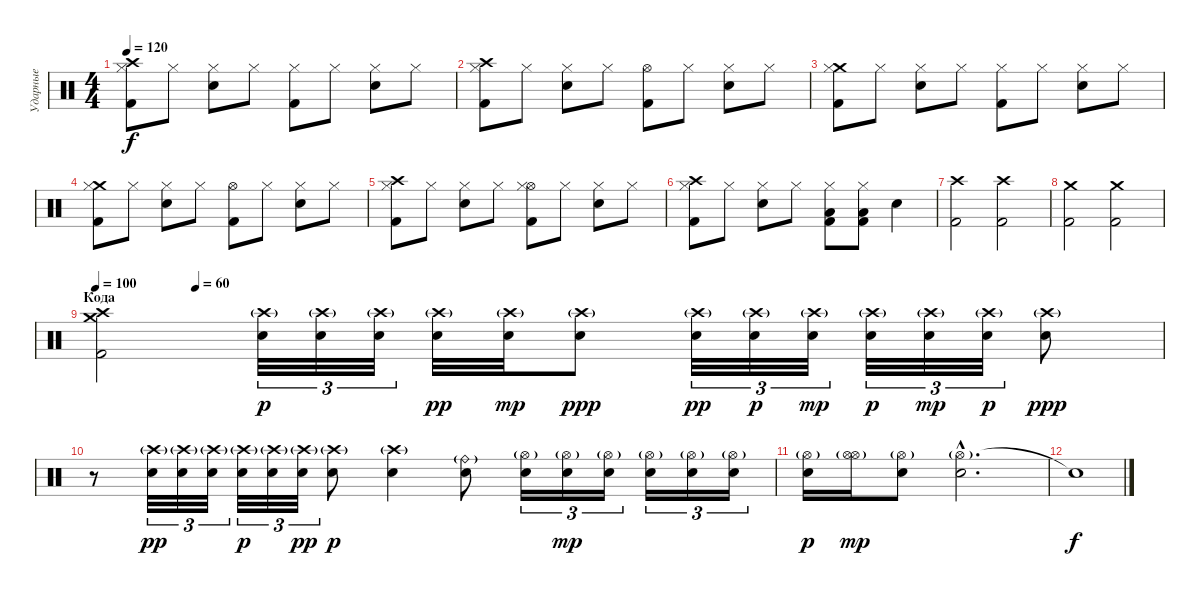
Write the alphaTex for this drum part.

\track ("Ударные" "Ударные") {instrument percussion}
\staff {score}
\articulation defaults
\ts (4 4)
\tempo 120
\clef neutral
\ks c
("Crash high (hit)" "Hi-Hat (closed)" "Kick (hit) 2").8{dy f} "Hi-Hat (closed)".8 ("Hi-Hat (closed)" "Snare (hit) 2").8 "Hi-Hat (closed)".8 ("Hi-Hat (closed)" "Kick (hit) 2").8 "Hi-Hat (closed)".8 ("Hi-Hat (closed)" "Snare (hit) 2").8 "Hi-Hat (closed)".8 |
("Crash high (hit)" "Hi-Hat (closed)" "Kick (hit) 2").8 "Hi-Hat (closed)".8 ("Hi-Hat (closed)" "Snare (hit) 2").8 "Hi-Hat (closed)".8 ("Hi-Hat (open)" "Kick (hit) 2").8 "Hi-Hat (closed)".8 ("Hi-Hat (closed)" "Snare (hit) 2").8 "Hi-Hat (closed)".8 |
("Crash medium (hit)" "Hi-Hat (closed)" "Kick (hit) 2").8 "Hi-Hat (closed)".8 ("Hi-Hat (closed)" "Snare (hit) 2").8 "Hi-Hat (closed)".8 ("Hi-Hat (closed)" "Kick (hit) 2").8 "Hi-Hat (closed)".8 ("Hi-Hat (closed)" "Snare (hit) 2").8 "Hi-Hat (closed)".8 |
("Crash medium (hit)" "Hi-Hat (closed)" "Kick (hit) 2").8 "Hi-Hat (closed)".8 ("Hi-Hat (closed)" "Snare (hit) 2").8 "Hi-Hat (closed)".8 ("Hi-Hat (open)" "Kick (hit) 2").8 "Hi-Hat (closed)".8 ("Hi-Hat (closed)" "Snare (hit) 2").8 "Hi-Hat (closed)".8 |
("Crash high (hit)" "Hi-Hat (closed)" "Kick (hit) 2").8 "Hi-Hat (closed)".8 ("Hi-Hat (closed)" "Snare (hit) 2").8 "Hi-Hat (closed)".8 ("Hi-Hat (open)" "Hi-Hat (closed)" "Kick (hit) 2").8 "Hi-Hat (closed)".8 ("Hi-Hat (closed)" "Snare (hit) 2").8 "Hi-Hat (closed)".8 |
("Crash high (hit)" "Hi-Hat (closed)" "Kick (hit) 2").8 "Hi-Hat (closed)".8 ("Hi-Hat (closed)" "Snare (hit) 2").8 "Hi-Hat (closed)".8 ("Hi-Hat (closed)" "Low Floor Tom (hit)" "Kick (hit) 2").8 ("Hi-Hat (closed)" "Low Floor Tom (hit)" "Kick (hit) 2").8 "Snare (hit) 2".4 |
("Crash high (hit)" "Kick (hit) 2").2 ("Crash high (hit)" "Kick (hit) 2").2 |
("Crash medium (hit)" "Kick (hit) 2").2 ("Crash medium (hit)" "Kick (hit) 2").2 |
\section ("" "Кода")
\tempo 100
\tempo (60 0.09375)
("Crash high (hit)" "Crash medium (hit)" "Kick (hit) 2").2 ("Crash high (hit)"{g} "Snare (hit)"{x}).32{tu (3 2) dy p} ("Crash high (hit)"{g} "Snare (hit)"{x}).32{tu (3 2)} ("Crash high (hit)"{g} "Snare (hit)"{x}).32{tu (3 2)} ("Crash high (hit)"{g} "Snare (hit)"{x}).32{dy pp} ("Crash high (hit)"{g} "Snare (hit)"{x}).32{dy mp} ("Crash high (hit)"{g} "Snare (hit)"{x}).8{dy ppp} ("Crash high (hit)"{g} "Snare (hit)"{x}).32{tu (3 2) dy pp} ("Crash high (hit)"{g} "Snare (hit)"{x}).32{tu (3 2) dy p} ("Crash high (hit)"{g} "Snare (hit)"{x}).32{tu (3 2) dy mp} ("Crash high (hit)"{g} "Snare (hit)"{x}).32{tu (3 2) dy p} ("Crash high (hit)"{g} "Snare (hit)"{x}).32{tu (3 2) dy mp} ("Crash high (hit)"{g} "Snare (hit)"{x}).32{tu (3 2) dy p} ("Crash high (hit)"{g} "Snare (hit)"{x}).8{dy ppp} |
r.8 ("Crash high (hit)"{g} "Snare (hit)"{x}).32{tu (3 2) dy pp} ("Crash high (hit)"{g} "Snare (hit)"{x}).32{tu (3 2)} ("Crash high (hit)"{g} "Snare (hit)"{x}).32{tu (3 2)} ("Crash high (hit)"{g} "Snare (hit)"{x}).32{tu (3 2) dy p} ("Crash high (hit)"{g} "Snare (hit)"{x}).32{tu (3 2)} ("Crash high (hit)"{g} "Snare (hit)"{x}).32{tu (3 2) dy pp} ("Crash high (hit)"{g} "Snare (hit)"{x}).8{dy p} ("Crash high (hit)"{g} "Snare (hit)"{x}).4 ("Ride (bell)"{g} "Snare (hit)"{x}).8 ("Hi-Hat (open)"{g} "Snare (hit)"{x}).16{tu (3 2)} ("Hi-Hat (open)"{g} "Snare (hit)"{x}).16{tu (3 2) dy mp} ("Hi-Hat (open)"{g} "Snare (hit)"{x}).16{tu (3 2)} ("Hi-Hat (open)"{g} "Snare (hit)"{x}).16{tu (3 2)} ("Hi-Hat (open)"{g} "Snare (hit)"{x}).16{tu (3 2)} ("Hi-Hat (open)"{g} "Snare (hit)"{x}).16{tu (3 2)} |
("Hi-Hat (open)"{g} "Snare (hit)"{x}).16{dy p} ("Hi-Hat (open)"{g} "Hi-Hat (open)"{x}).16{dy mp} ("Hi-Hat (open)"{g} "Snare (hit)"{x}).8 ("Hi-Hat (open)"{g hac} "Snare (hit)"{hac x}).2{d} |
"Snare (hit)"{t}.1{dy f}
